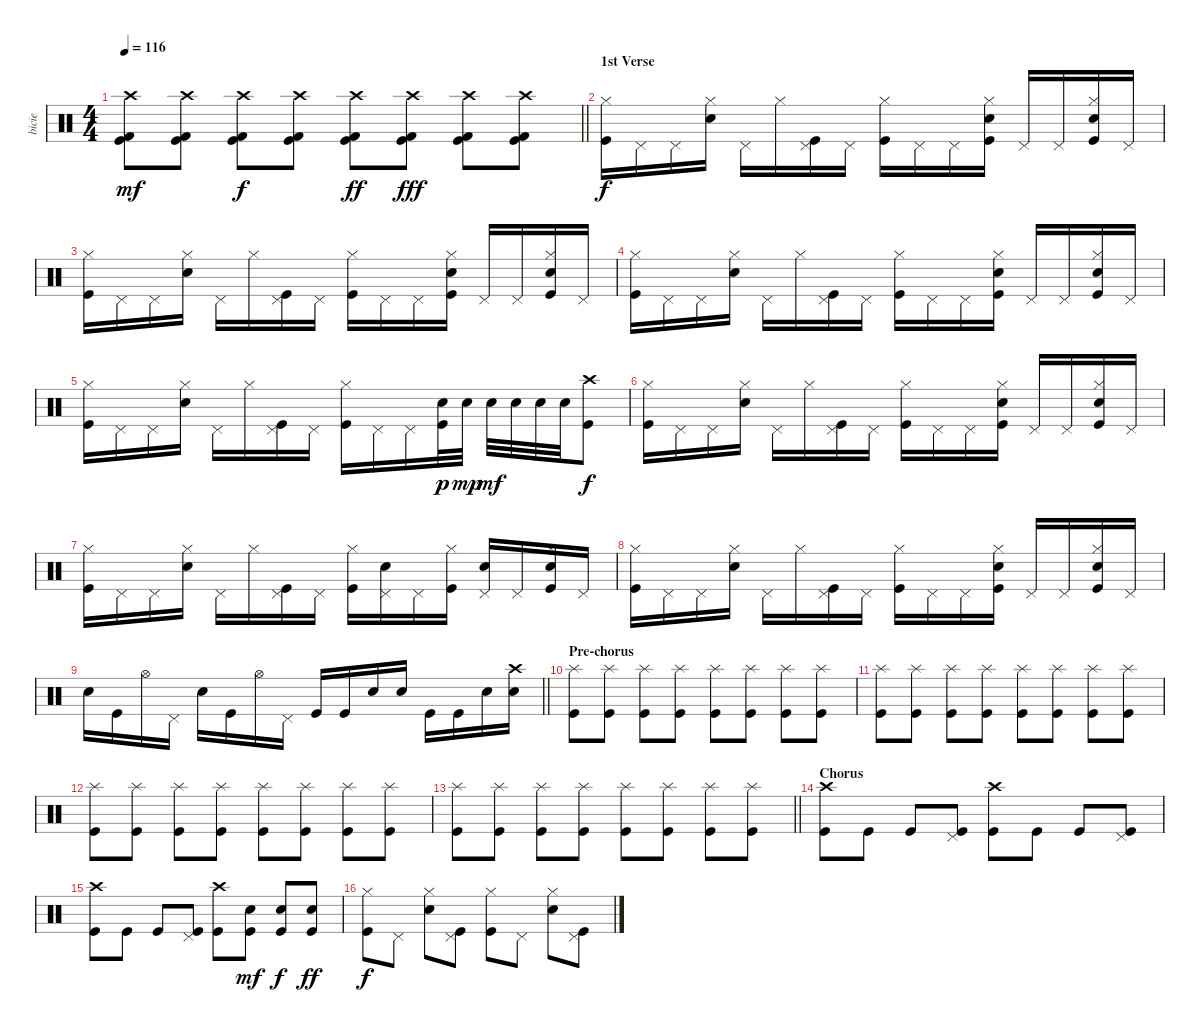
\track ("bicie" "bicie") {instrument percussion}
\staff {score}
\articulation defaults
\ts (4 4)
\tempo 116
\clef neutral
\barLineRight lightlight
\ks c
("Crash high (hit)" "Kick (hit) 2" "Kick (hit)").8{dy mf} ("Crash high (hit)" "Kick (hit) 2" "Kick (hit)").8 ("Crash high (hit)" "Kick (hit) 2" "Kick (hit)").8{dy f} ("Crash high (hit)" "Kick (hit) 2" "Kick (hit)").8 ("Crash high (hit)" "Kick (hit) 2" "Kick (hit)").8{dy ff} ("Crash high (hit)" "Kick (hit) 2" "Kick (hit)").8{dy fff} ("Crash high (hit)" "Kick (hit) 2" "Kick (hit)").8 ("Crash high (hit)" "Kick (hit) 2" "Kick (hit)").8 |
\section ("" "1st Verse")
("Hi-Hat (closed)" "Kick (hit)").16{dy f} "Pedal Hi-Hat (hit)".16 "Pedal Hi-Hat (hit)".16 ("Hi-Hat (closed)" "Electric Snare (hit)").16 "Pedal Hi-Hat (hit)".16 "Hi-Hat (closed)".16 ("Pedal Hi-Hat (hit)" "Kick (hit)").16 "Pedal Hi-Hat (hit)".16 ("Hi-Hat (closed)" "Kick (hit)").16 "Pedal Hi-Hat (hit)".16 "Pedal Hi-Hat (hit)".16 ("Hi-Hat (closed)" "Electric Snare (hit)" "Kick (hit)").16 "Pedal Hi-Hat (hit)".16 "Pedal Hi-Hat (hit)".16 ("Hi-Hat (closed)" "Electric Snare (hit)" "Kick (hit)").16 "Pedal Hi-Hat (hit)".16 |
("Hi-Hat (closed)" "Kick (hit)").16 "Pedal Hi-Hat (hit)".16 "Pedal Hi-Hat (hit)".16 ("Hi-Hat (closed)" "Electric Snare (hit)").16 "Pedal Hi-Hat (hit)".16 "Hi-Hat (closed)".16 ("Pedal Hi-Hat (hit)" "Kick (hit)").16 "Pedal Hi-Hat (hit)".16 ("Hi-Hat (closed)" "Kick (hit)").16 "Pedal Hi-Hat (hit)".16 "Pedal Hi-Hat (hit)".16 ("Hi-Hat (closed)" "Electric Snare (hit)" "Kick (hit)").16 "Pedal Hi-Hat (hit)".16 "Pedal Hi-Hat (hit)".16 ("Hi-Hat (closed)" "Electric Snare (hit)" "Kick (hit)").16 "Pedal Hi-Hat (hit)".16 |
("Hi-Hat (closed)" "Kick (hit)").16 "Pedal Hi-Hat (hit)".16 "Pedal Hi-Hat (hit)".16 ("Hi-Hat (closed)" "Electric Snare (hit)").16 "Pedal Hi-Hat (hit)".16 "Hi-Hat (closed)".16 ("Pedal Hi-Hat (hit)" "Kick (hit)").16 "Pedal Hi-Hat (hit)".16 ("Hi-Hat (closed)" "Kick (hit)").16 "Pedal Hi-Hat (hit)".16 "Pedal Hi-Hat (hit)".16 ("Hi-Hat (closed)" "Electric Snare (hit)" "Kick (hit)").16 "Pedal Hi-Hat (hit)".16 "Pedal Hi-Hat (hit)".16 ("Hi-Hat (closed)" "Electric Snare (hit)" "Kick (hit)").16 "Pedal Hi-Hat (hit)".16 |
("Hi-Hat (closed)" "Kick (hit)").16 "Pedal Hi-Hat (hit)".16 "Pedal Hi-Hat (hit)".16 ("Hi-Hat (closed)" "Electric Snare (hit)").16 "Pedal Hi-Hat (hit)".16 "Hi-Hat (closed)".16 ("Pedal Hi-Hat (hit)" "Kick (hit)").16 "Pedal Hi-Hat (hit)".16 ("Hi-Hat (closed)" "Kick (hit)").16 "Pedal Hi-Hat (hit)".16 "Pedal Hi-Hat (hit)".16 ("Electric Snare (hit)" "Kick (hit)").32{dy p} "Electric Snare (hit)".32{dy mp} "Electric Snare (hit)".32{dy mf} "Electric Snare (hit)".32 "Electric Snare (hit)".32 "Electric Snare (hit)".32 ("Crash high (hit)" "Kick (hit)").8{dy f} |
("Hi-Hat (closed)" "Kick (hit)").16 "Pedal Hi-Hat (hit)".16 "Pedal Hi-Hat (hit)".16 ("Hi-Hat (closed)" "Electric Snare (hit)").16 "Pedal Hi-Hat (hit)".16 "Hi-Hat (closed)".16 ("Pedal Hi-Hat (hit)" "Kick (hit)").16 "Pedal Hi-Hat (hit)".16 ("Hi-Hat (closed)" "Kick (hit)").16 "Pedal Hi-Hat (hit)".16 "Pedal Hi-Hat (hit)".16 ("Hi-Hat (closed)" "Electric Snare (hit)" "Kick (hit)").16 "Pedal Hi-Hat (hit)".16 "Pedal Hi-Hat (hit)".16 ("Hi-Hat (closed)" "Electric Snare (hit)" "Kick (hit)").16 "Pedal Hi-Hat (hit)".16 |
("Hi-Hat (closed)" "Kick (hit)").16 "Pedal Hi-Hat (hit)".16 "Pedal Hi-Hat (hit)".16 ("Hi-Hat (closed)" "Electric Snare (hit)").16 "Pedal Hi-Hat (hit)".16 "Hi-Hat (closed)".16 ("Pedal Hi-Hat (hit)" "Kick (hit)").16 "Pedal Hi-Hat (hit)".16 ("Hi-Hat (closed)" "Kick (hit)").16 ("Pedal Hi-Hat (hit)" "Electric Snare (hit)").16 "Pedal Hi-Hat (hit)".16 ("Hi-Hat (closed)" "Kick (hit)").16 ("Pedal Hi-Hat (hit)" "Electric Snare (hit)").16 "Pedal Hi-Hat (hit)".16 ("Hi-Hat (closed)" "Electric Snare (hit)" "Kick (hit)").16 "Pedal Hi-Hat (hit)".16 |
("Hi-Hat (closed)" "Kick (hit)").16 "Pedal Hi-Hat (hit)".16 "Pedal Hi-Hat (hit)".16 ("Hi-Hat (closed)" "Electric Snare (hit)").16 "Pedal Hi-Hat (hit)".16 "Hi-Hat (closed)".16 ("Pedal Hi-Hat (hit)" "Kick (hit)").16 "Pedal Hi-Hat (hit)".16 ("Hi-Hat (closed)" "Kick (hit)").16 "Pedal Hi-Hat (hit)".16 "Pedal Hi-Hat (hit)".16 ("Hi-Hat (closed)" "Electric Snare (hit)" "Kick (hit)").16 "Pedal Hi-Hat (hit)".16 "Pedal Hi-Hat (hit)".16 ("Hi-Hat (closed)" "Electric Snare (hit)" "Kick (hit)").16 "Pedal Hi-Hat (hit)".16 |
\barLineRight lightlight "Electric Snare (hit)".16 "Kick (hit)".16 "Hi-Hat (open)".16 "Pedal Hi-Hat (hit)".16 "Electric Snare (hit)".16 "Kick (hit)".16 "Hi-Hat (open)".16 "Pedal Hi-Hat (hit)".16 "Kick (hit)".16 "Kick (hit)".16 "Electric Snare (hit)".16 "Electric Snare (hit)".16 "Kick (hit)".16 "Kick (hit)".16 "Electric Snare (hit)".16
("Crash high (hit)" "Electric Snare (hit)").16 |
\section ("" "Pre-chorus")
("Splash (hit)" "Kick (hit)").8 ("Splash (hit)" "Kick (hit)").8 ("Splash (hit)" "Kick (hit)").8 ("Splash (hit)" "Kick (hit)").8 ("Splash (hit)" "Kick (hit)").8 ("Splash (hit)" "Kick (hit)").8 ("Splash (hit)" "Kick (hit)").8 ("Splash (hit)" "Kick (hit)").8 |
("Splash (hit)" "Kick (hit)").8 ("Splash (hit)" "Kick (hit)").8 ("Splash (hit)" "Kick (hit)").8 ("Splash (hit)" "Kick (hit)").8 ("Splash (hit)" "Kick (hit)").8 ("Splash (hit)" "Kick (hit)").8 ("Splash (hit)" "Kick (hit)").8 ("Splash (hit)" "Kick (hit)").8 |
("Splash (hit)" "Kick (hit)").8 ("Splash (hit)" "Kick (hit)").8 ("Splash (hit)" "Kick (hit)").8 ("Splash (hit)" "Kick (hit)").8 ("Splash (hit)" "Kick (hit)").8 ("Splash (hit)" "Kick (hit)").8 ("Splash (hit)" "Kick (hit)").8 ("Splash (hit)" "Kick (hit)").8 |
\barLineRight lightlight
("Splash (hit)" "Kick (hit)").8 ("Splash (hit)" "Kick (hit)").8 ("Splash (hit)" "Kick (hit)").8 ("Splash (hit)" "Kick (hit)").8 ("Splash (hit)" "Kick (hit)").8 ("Splash (hit)" "Kick (hit)").8 ("Splash (hit)" "Kick (hit)").8 ("Splash (hit)" "Kick (hit)").8 |
\section ("" "Chorus")
("Crash high (hit)" "Kick (hit)").8 "Kick (hit)".8 "Kick (hit)".8 ("Pedal Hi-Hat (hit)" "Kick (hit)").8 ("Crash high (hit)" "Kick (hit)").8 "Kick (hit)".8 "Kick (hit)".8 ("Pedal Hi-Hat (hit)" "Kick (hit)").8 |
("Crash high (hit)" "Kick (hit)").8 "Kick (hit)".8 "Kick (hit)".8 ("Pedal Hi-Hat (hit)" "Kick (hit)").8 ("Crash high (hit)" "Kick (hit)").8 ("Electric Snare (hit)" "Kick (hit)").8{dy mf} ("Electric Snare (hit)" "Kick (hit)").8{dy f} ("Electric Snare (hit)" "Kick (hit)").8{dy ff} |
("Hi-Hat (closed)" "Kick (hit)").8{dy f} "Pedal Hi-Hat (hit)".8 ("Hi-Hat (closed)" "Electric Snare (hit)").8 ("Pedal Hi-Hat (hit)" "Kick (hit)").8 ("Hi-Hat (closed)" "Kick (hit)").8 "Pedal Hi-Hat (hit)".8 ("Hi-Hat (closed)" "Electric Snare (hit)").8 ("Pedal Hi-Hat (hit)" "Kick (hit)").8
